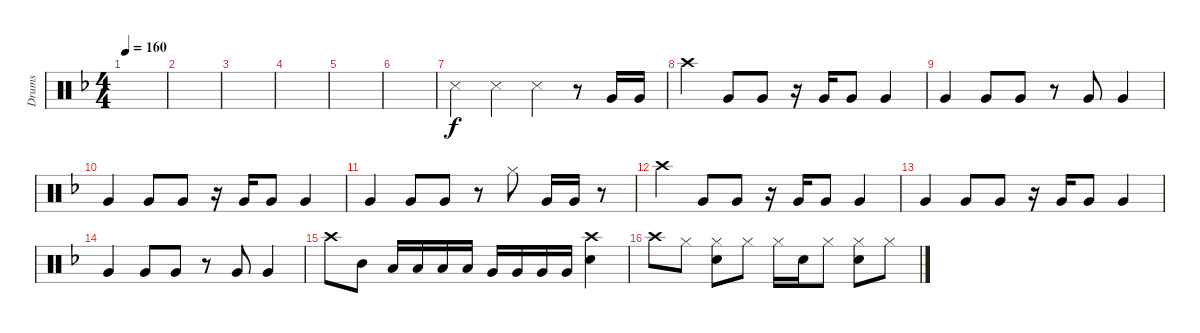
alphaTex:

\track ("Drums" "Drums") {instrument percussion}
\staff {score}
\articulation defaults
\ts (4 4)
\tempo 160
\clef neutral
\ks f
|
|
|
|
|
|
"Snare (side stick) 3".4 "Snare (side stick) 3".4 "Snare (side stick) 3".4 r.8 "Very Low Tom (hit)".16 "Very Low Tom (hit)".16 |
"Crash high (hit)".4 "Very Low Tom (hit)".8 "Very Low Tom (hit)".8 r.16 "Very Low Tom (hit)".16 "Very Low Tom (hit)".8 "Very Low Tom (hit)".4 |
"Very Low Tom (hit)".4 "Very Low Tom (hit)".8 "Very Low Tom (hit)".8 r.8 "Very Low Tom (hit)".8 "Very Low Tom (hit)".4 |
"Very Low Tom (hit)".4 "Very Low Tom (hit)".8 "Very Low Tom (hit)".8 r.16 "Very Low Tom (hit)".16 "Very Low Tom (hit)".8 "Very Low Tom (hit)".4 |
"Very Low Tom (hit)".4 "Very Low Tom (hit)".8 "Very Low Tom (hit)".8 r.8 "Hi-Hat (closed)".8 "Very Low Tom (hit)".16 "Very Low Tom (hit)".16 r.8 |
"Crash high (hit)".4 "Very Low Tom (hit)".8 "Very Low Tom (hit)".8 r.16 "Very Low Tom (hit)".16 "Very Low Tom (hit)".8 "Very Low Tom (hit)".4 |
"Very Low Tom (hit)".4 "Very Low Tom (hit)".8 "Very Low Tom (hit)".8 r.16 "Very Low Tom (hit)".16 "Very Low Tom (hit)".8 "Very Low Tom (hit)".4 |
"Very Low Tom (hit)".4 "Very Low Tom (hit)".8 "Very Low Tom (hit)".8 r.8 "Very Low Tom (hit)".8 "Very Low Tom (hit)".4 |
"Crash high (hit)".8 "Mid Tom (hit)".8 "Low Tom (hit)".16 "Low Tom (hit)".16 "Low Tom (hit)".16 "Low Tom (hit)".16 "Very Low Tom (hit)".16 "Very Low Tom (hit)".16 "Very Low Tom (hit)".16 "Very Low Tom (hit)".16 ("Crash high (hit)" "Snare (hit) 2").4 |
"Crash high (hit)".8 "Hi-Hat (closed)".8 ("Hi-Hat (closed)" "Snare (hit) 2").8 "Hi-Hat (closed)".8 "Hi-Hat (closed)".16 "Snare (hit) 2".16 "Hi-Hat (closed)".8 ("Hi-Hat (closed)" "Snare (hit) 2").8 "Hi-Hat (closed)".8
